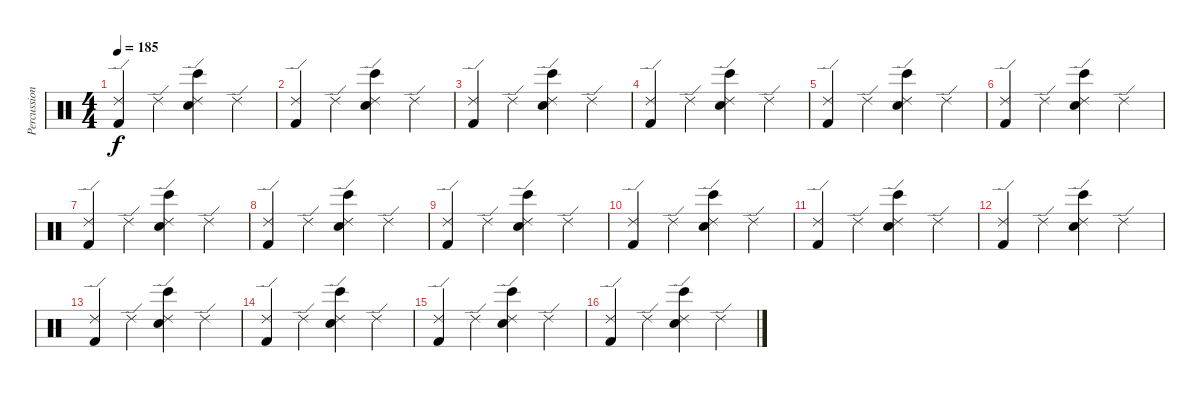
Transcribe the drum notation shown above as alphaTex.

\track ("Percussion" "Percussion") {instrument percussion}
\staff {score}
\articulation defaults
\ts (4 4)
\tempo 185
\clef neutral
\ks c
("Ride (edge) 2" "Kick (hit) 2").4{dy f} "Ride (edge) 2".4 ("Bongo High (hit)" "Electric Snare (hit)" "Ride (edge) 2").4 "Ride (edge) 2".4 |
("Ride (edge) 2" "Kick (hit) 2").4 "Ride (edge) 2".4 ("Bongo High (hit)" "Electric Snare (hit)" "Ride (edge) 2").4 "Ride (edge) 2".4 |
("Ride (edge) 2" "Kick (hit) 2").4 "Ride (edge) 2".4 ("Bongo High (hit)" "Electric Snare (hit)" "Ride (edge) 2").4 "Ride (edge) 2".4 |
("Ride (edge) 2" "Kick (hit) 2").4 "Ride (edge) 2".4 ("Bongo High (hit)" "Electric Snare (hit)" "Ride (edge) 2").4 "Ride (edge) 2".4 |
("Ride (edge) 2" "Kick (hit) 2").4 "Ride (edge) 2".4 ("Bongo High (hit)" "Electric Snare (hit)" "Ride (edge) 2").4 "Ride (edge) 2".4 |
("Ride (edge) 2" "Kick (hit) 2").4 "Ride (edge) 2".4 ("Bongo High (hit)" "Electric Snare (hit)" "Ride (edge) 2").4 "Ride (edge) 2".4 |
("Ride (edge) 2" "Kick (hit) 2").4 "Ride (edge) 2".4 ("Bongo High (hit)" "Electric Snare (hit)" "Ride (edge) 2").4 "Ride (edge) 2".4 |
("Ride (edge) 2" "Kick (hit) 2").4 "Ride (edge) 2".4 ("Bongo High (hit)" "Electric Snare (hit)" "Ride (edge) 2").4 "Ride (edge) 2".4 |
("Ride (edge) 2" "Kick (hit) 2").4 "Ride (edge) 2".4 ("Bongo High (hit)" "Electric Snare (hit)" "Ride (edge) 2").4 "Ride (edge) 2".4 |
("Ride (edge) 2" "Kick (hit) 2").4 "Ride (edge) 2".4 ("Bongo High (hit)" "Electric Snare (hit)" "Ride (edge) 2").4 "Ride (edge) 2".4 |
("Ride (edge) 2" "Kick (hit) 2").4 "Ride (edge) 2".4 ("Bongo High (hit)" "Electric Snare (hit)" "Ride (edge) 2").4 "Ride (edge) 2".4 |
("Ride (edge) 2" "Kick (hit) 2").4 "Ride (edge) 2".4 ("Bongo High (hit)" "Electric Snare (hit)" "Ride (edge) 2").4 "Ride (edge) 2".4 |
("Ride (edge) 2" "Kick (hit) 2").4 "Ride (edge) 2".4 ("Bongo High (hit)" "Electric Snare (hit)" "Ride (edge) 2").4 "Ride (edge) 2".4 |
("Ride (edge) 2" "Kick (hit) 2").4 "Ride (edge) 2".4 ("Bongo High (hit)" "Electric Snare (hit)" "Ride (edge) 2").4 "Ride (edge) 2".4 |
("Ride (edge) 2" "Kick (hit) 2").4 "Ride (edge) 2".4 ("Bongo High (hit)" "Electric Snare (hit)" "Ride (edge) 2").4 "Ride (edge) 2".4 |
("Ride (edge) 2" "Kick (hit) 2").4 "Ride (edge) 2".4 ("Bongo High (hit)" "Electric Snare (hit)" "Ride (edge) 2").4 "Ride (edge) 2".4
